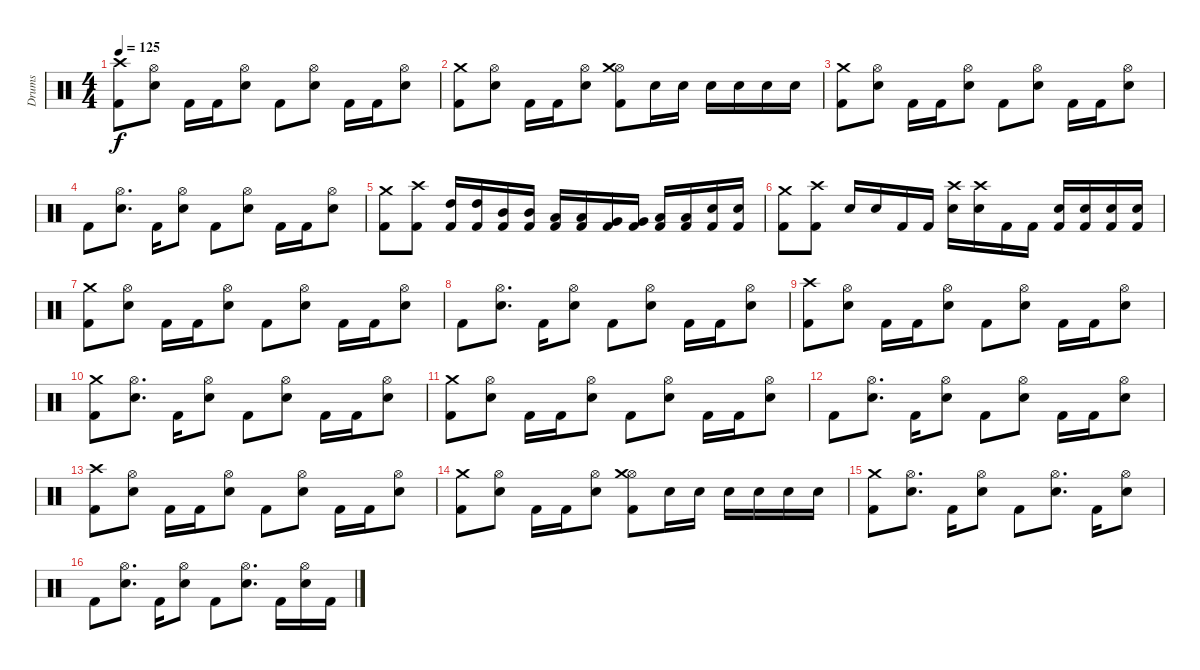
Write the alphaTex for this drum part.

\track ("Drums" "Drums") {instrument percussion}
\staff {score}
\articulation defaults
\ts (4 4)
\tempo 125
\clef neutral
\ks c
("Crash high (hit)" "Kick (hit) 2").8{dy f} ("Hi-Hat (open)" "Snare (hit) 2").8 "Kick (hit) 2".16 "Kick (hit) 2".16 ("Hi-Hat (open)" "Snare (hit) 2").8 "Kick (hit) 2".8 ("Hi-Hat (open)" "Snare (hit) 2").8 "Kick (hit) 2".16 "Kick (hit) 2".16 ("Hi-Hat (open)" "Snare (hit) 2").8 |
("Crash medium (hit)" "Kick (hit) 2").8 ("Hi-Hat (open)" "Snare (hit) 2").8 "Kick (hit) 2".16 "Kick (hit) 2".16 ("Hi-Hat (open)" "Snare (hit) 2").8 ("Hi-Hat (open)" "Crash medium (hit)" "Kick (hit) 2").8 "Electric Snare (hit)".16 "Electric Snare (hit)".16 "Electric Snare (hit)".16 "Electric Snare (hit)".16 "Electric Snare (hit)".16 "Electric Snare (hit)".16 |
("Crash medium (hit)" "Kick (hit) 2").8 ("Hi-Hat (open)" "Snare (hit) 2").8 "Kick (hit) 2".16 "Kick (hit) 2".16 ("Hi-Hat (open)" "Snare (hit) 2").8 "Kick (hit) 2".8 ("Hi-Hat (open)" "Snare (hit) 2").8 "Kick (hit) 2".16 "Kick (hit) 2".16 ("Hi-Hat (open)" "Snare (hit) 2").8 |
"Kick (hit) 2".8 ("Hi-Hat (open)" "Snare (hit) 2").8{d} "Kick (hit) 2".16 ("Hi-Hat (open)" "Snare (hit) 2").8 "Kick (hit) 2".8 ("Hi-Hat (open)" "Snare (hit) 2").8 "Kick (hit) 2".16 "Kick (hit) 2".16 ("Hi-Hat (open)" "Snare (hit) 2").8 |
("Crash medium (hit)" "Kick (hit) 2").8 ("Crash high (hit)" "Kick (hit) 2").8 ("High Tom (hit)" "Kick (hit) 2").16 ("High Tom (hit)" "Kick (hit) 2").16 ("Mid Tom (hit)" "Kick (hit) 2").16 ("Mid Tom (hit)" "Kick (hit) 2").16 ("Low Tom (hit)" "Kick (hit) 2").16 ("Low Tom (hit)" "Kick (hit) 2").16 ("Very Low Tom (hit)" "Kick (hit) 2").16 ("Very Low Tom (hit)" "Kick (hit) 2").16 ("Low Floor Tom (hit)" "Kick (hit) 2").16 ("Low Floor Tom (hit)" "Kick (hit) 2").16 ("Snare (hit) 2" "Kick (hit) 2").16 ("Snare (hit) 2" "Kick (hit) 2").16 |
("Crash medium (hit)" "Kick (hit) 2").8 ("Crash high (hit)" "Kick (hit) 2").8 "Snare (hit) 2".16 "Snare (hit) 2".16 "Kick (hit) 2".16 "Kick (hit) 2".16 ("Crash high (hit)" "Snare (hit) 2").16 ("Crash high (hit)" "Snare (hit) 2").16 "Kick (hit) 2".16 "Kick (hit) 2".16 ("Snare (hit) 2" "Kick (hit) 2").16 ("Snare (hit) 2" "Kick (hit) 2").16 ("Snare (hit) 2" "Kick (hit) 2").16 ("Snare (hit) 2" "Kick (hit) 2").16 |
("Crash medium (hit)" "Kick (hit) 2").8 ("Hi-Hat (open)" "Snare (hit) 2").8 "Kick (hit) 2".16 "Kick (hit) 2".16 ("Hi-Hat (open)" "Snare (hit) 2").8 "Kick (hit) 2".8 ("Hi-Hat (open)" "Snare (hit) 2").8 "Kick (hit) 2".16 "Kick (hit) 2".16 ("Hi-Hat (open)" "Snare (hit) 2").8 |
"Kick (hit) 2".8 ("Hi-Hat (open)" "Snare (hit) 2").8{d} "Kick (hit) 2".16 ("Hi-Hat (open)" "Snare (hit) 2").8 "Kick (hit) 2".8 ("Hi-Hat (open)" "Snare (hit) 2").8 "Kick (hit) 2".16 "Kick (hit) 2".16 ("Hi-Hat (open)" "Snare (hit) 2").8 |
("Crash high (hit)" "Kick (hit) 2").8 ("Hi-Hat (open)" "Snare (hit) 2").8 "Kick (hit) 2".16 "Kick (hit) 2".16 ("Hi-Hat (open)" "Snare (hit) 2").8 "Kick (hit) 2".8 ("Hi-Hat (open)" "Snare (hit) 2").8 "Kick (hit) 2".16 "Kick (hit) 2".16 ("Hi-Hat (open)" "Snare (hit) 2").8 |
("Crash medium (hit)" "Kick (hit) 2").8 ("Hi-Hat (open)" "Snare (hit) 2").8{d} "Kick (hit) 2".16 ("Hi-Hat (open)" "Snare (hit) 2").8 "Kick (hit) 2".8 ("Hi-Hat (open)" "Snare (hit) 2").8 "Kick (hit) 2".16 "Kick (hit) 2".16 ("Hi-Hat (open)" "Snare (hit) 2").8 |
("Crash medium (hit)" "Kick (hit) 2").8 ("Hi-Hat (open)" "Snare (hit) 2").8 "Kick (hit) 2".16 "Kick (hit) 2".16 ("Hi-Hat (open)" "Snare (hit) 2").8 "Kick (hit) 2".8 ("Hi-Hat (open)" "Snare (hit) 2").8 "Kick (hit) 2".16 "Kick (hit) 2".16 ("Hi-Hat (open)" "Snare (hit) 2").8 |
"Kick (hit) 2".8 ("Hi-Hat (open)" "Snare (hit) 2").8{d} "Kick (hit) 2".16 ("Hi-Hat (open)" "Snare (hit) 2").8 "Kick (hit) 2".8 ("Hi-Hat (open)" "Snare (hit) 2").8 "Kick (hit) 2".16 "Kick (hit) 2".16 ("Hi-Hat (open)" "Snare (hit) 2").8 |
("Crash high (hit)" "Kick (hit) 2").8 ("Hi-Hat (open)" "Snare (hit) 2").8 "Kick (hit) 2".16 "Kick (hit) 2".16 ("Hi-Hat (open)" "Snare (hit) 2").8 "Kick (hit) 2".8 ("Hi-Hat (open)" "Snare (hit) 2").8 "Kick (hit) 2".16 "Kick (hit) 2".16 ("Hi-Hat (open)" "Snare (hit) 2").8 |
("Crash medium (hit)" "Kick (hit) 2").8 ("Hi-Hat (open)" "Snare (hit) 2").8 "Kick (hit) 2".16 "Kick (hit) 2".16 ("Hi-Hat (open)" "Snare (hit) 2").8 ("Hi-Hat (open)" "Crash medium (hit)" "Kick (hit) 2").8 "Electric Snare (hit)".16 "Electric Snare (hit)".16 "Electric Snare (hit)".16 "Electric Snare (hit)".16 "Electric Snare (hit)".16 "Electric Snare (hit)".16 |
("Crash medium (hit)" "Kick (hit) 2").8 ("Hi-Hat (open)" "Snare (hit) 2").8{d} "Kick (hit) 2".16 ("Hi-Hat (open)" "Snare (hit) 2").8 "Kick (hit) 2".8 ("Hi-Hat (open)" "Snare (hit) 2").8{d} "Kick (hit) 2".16 ("Hi-Hat (open)" "Snare (hit) 2").8 |
"Kick (hit) 2".8 ("Hi-Hat (open)" "Snare (hit) 2").8{d} "Kick (hit) 2".16 ("Hi-Hat (open)" "Snare (hit) 2").8 "Kick (hit) 2".8 ("Hi-Hat (open)" "Snare (hit) 2").8{d} "Kick (hit) 2".16 ("Hi-Hat (open)" "Snare (hit) 2").16 "Kick (hit) 2".16
